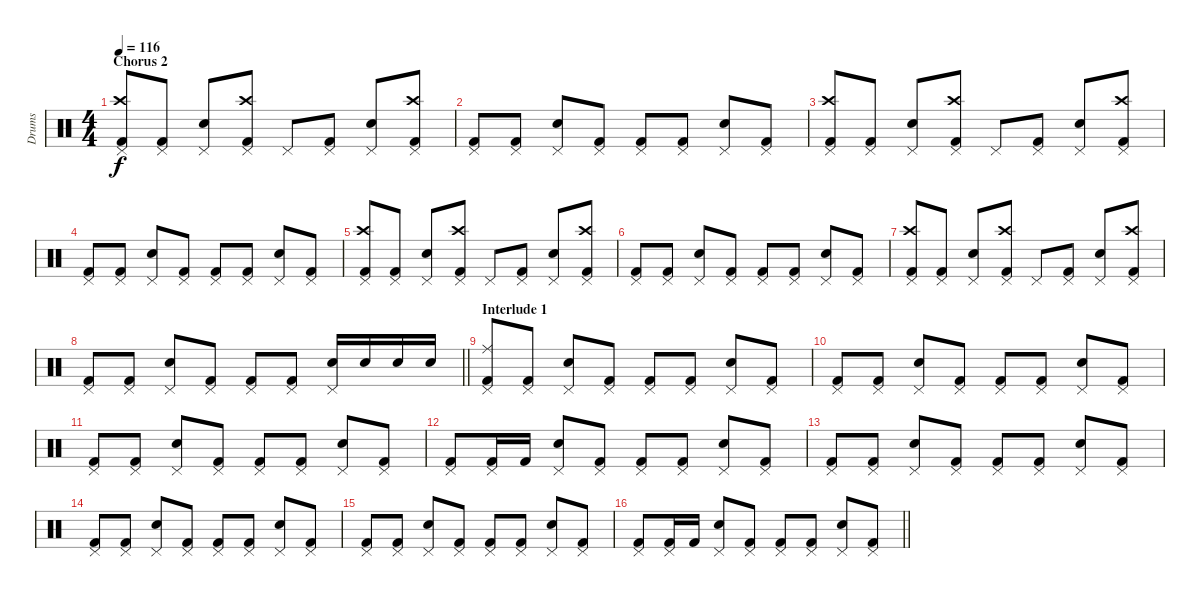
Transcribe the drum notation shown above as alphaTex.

\track ("Drums" "Drums") {instrument percussion}
\staff {score}
\articulation defaults
\ts (4 4)
\section ("" "Chorus 2")
\tempo 116
\clef neutral
\ks c
("Pedal Hi-Hat (hit)" "Crash high (hit)" "Kick (hit) 2").8{dy f} ("Pedal Hi-Hat (hit)" "Kick (hit) 2").8 ("Pedal Hi-Hat (hit)" "Electric Snare (hit)").8 ("Pedal Hi-Hat (hit)" "Crash high (hit)" "Kick (hit) 2").8 "Pedal Hi-Hat (hit)".8 ("Pedal Hi-Hat (hit)" "Kick (hit) 2").8 ("Pedal Hi-Hat (hit)" "Electric Snare (hit)").8 ("Pedal Hi-Hat (hit)" "Crash high (hit)" "Kick (hit) 2").8 |
("Pedal Hi-Hat (hit)" "Kick (hit) 2").8 ("Pedal Hi-Hat (hit)" "Kick (hit) 2").8 ("Pedal Hi-Hat (hit)" "Electric Snare (hit)").8 ("Pedal Hi-Hat (hit)" "Kick (hit) 2").8 ("Pedal Hi-Hat (hit)" "Kick (hit) 2").8 ("Pedal Hi-Hat (hit)" "Kick (hit) 2").8 ("Pedal Hi-Hat (hit)" "Electric Snare (hit)").8 ("Pedal Hi-Hat (hit)" "Kick (hit) 2").8 |
("Pedal Hi-Hat (hit)" "Crash high (hit)" "Kick (hit) 2").8 ("Pedal Hi-Hat (hit)" "Kick (hit) 2").8 ("Pedal Hi-Hat (hit)" "Electric Snare (hit)").8 ("Pedal Hi-Hat (hit)" "Crash high (hit)" "Kick (hit) 2").8 "Pedal Hi-Hat (hit)".8 ("Pedal Hi-Hat (hit)" "Kick (hit) 2").8 ("Pedal Hi-Hat (hit)" "Electric Snare (hit)").8 ("Pedal Hi-Hat (hit)" "Crash high (hit)" "Kick (hit) 2").8 |
("Pedal Hi-Hat (hit)" "Kick (hit) 2").8 ("Pedal Hi-Hat (hit)" "Kick (hit) 2").8 ("Pedal Hi-Hat (hit)" "Electric Snare (hit)").8 ("Pedal Hi-Hat (hit)" "Kick (hit) 2").8 ("Pedal Hi-Hat (hit)" "Kick (hit) 2").8 ("Pedal Hi-Hat (hit)" "Kick (hit) 2").8 ("Pedal Hi-Hat (hit)" "Electric Snare (hit)").8 ("Pedal Hi-Hat (hit)" "Kick (hit) 2").8 |
("Pedal Hi-Hat (hit)" "Crash high (hit)" "Kick (hit) 2").8 ("Pedal Hi-Hat (hit)" "Kick (hit) 2").8 ("Pedal Hi-Hat (hit)" "Electric Snare (hit)").8 ("Pedal Hi-Hat (hit)" "Crash high (hit)" "Kick (hit) 2").8 "Pedal Hi-Hat (hit)".8 ("Pedal Hi-Hat (hit)" "Kick (hit) 2").8 ("Pedal Hi-Hat (hit)" "Electric Snare (hit)").8 ("Pedal Hi-Hat (hit)" "Crash high (hit)" "Kick (hit) 2").8 |
("Pedal Hi-Hat (hit)" "Kick (hit) 2").8 ("Pedal Hi-Hat (hit)" "Kick (hit) 2").8 ("Pedal Hi-Hat (hit)" "Electric Snare (hit)").8 ("Pedal Hi-Hat (hit)" "Kick (hit) 2").8 ("Pedal Hi-Hat (hit)" "Kick (hit) 2").8 ("Pedal Hi-Hat (hit)" "Kick (hit) 2").8 ("Pedal Hi-Hat (hit)" "Electric Snare (hit)").8 ("Pedal Hi-Hat (hit)" "Kick (hit) 2").8 |
("Pedal Hi-Hat (hit)" "Crash high (hit)" "Kick (hit) 2").8 ("Pedal Hi-Hat (hit)" "Kick (hit) 2").8 ("Pedal Hi-Hat (hit)" "Electric Snare (hit)").8 ("Pedal Hi-Hat (hit)" "Crash high (hit)" "Kick (hit) 2").8 "Pedal Hi-Hat (hit)".8 ("Pedal Hi-Hat (hit)" "Kick (hit) 2").8 ("Pedal Hi-Hat (hit)" "Electric Snare (hit)").8 ("Pedal Hi-Hat (hit)" "Crash high (hit)" "Kick (hit) 2").8 |
\barLineRight lightlight
("Pedal Hi-Hat (hit)" "Kick (hit) 2").8 ("Pedal Hi-Hat (hit)" "Kick (hit) 2").8 ("Pedal Hi-Hat (hit)" "Electric Snare (hit)").8 ("Pedal Hi-Hat (hit)" "Kick (hit) 2").8 ("Pedal Hi-Hat (hit)" "Kick (hit) 2").8 ("Pedal Hi-Hat (hit)" "Kick (hit) 2").8 ("Pedal Hi-Hat (hit)" "Electric Snare (hit)").16 "Electric Snare (hit)".16 "Electric Snare (hit)".16 "Electric Snare (hit)".16 |
\section ("" "Interlude 1")
("Pedal Hi-Hat (hit)" "Ride (middle)" "Kick (hit) 2").8 ("Pedal Hi-Hat (hit)" "Kick (hit) 2").8 ("Pedal Hi-Hat (hit)" "Electric Snare (hit)").8 ("Pedal Hi-Hat (hit)" "Kick (hit) 2").8 ("Pedal Hi-Hat (hit)" "Kick (hit) 2").8 ("Pedal Hi-Hat (hit)" "Kick (hit) 2").8 ("Pedal Hi-Hat (hit)" "Electric Snare (hit)").8 ("Pedal Hi-Hat (hit)" "Kick (hit) 2").8 |
("Pedal Hi-Hat (hit)" "Kick (hit) 2").8 ("Pedal Hi-Hat (hit)" "Kick (hit) 2").8 ("Pedal Hi-Hat (hit)" "Electric Snare (hit)").8 ("Pedal Hi-Hat (hit)" "Kick (hit) 2").8 ("Pedal Hi-Hat (hit)" "Kick (hit) 2").8 ("Pedal Hi-Hat (hit)" "Kick (hit) 2").8 ("Pedal Hi-Hat (hit)" "Electric Snare (hit)").8 ("Pedal Hi-Hat (hit)" "Kick (hit) 2").8 |
("Pedal Hi-Hat (hit)" "Kick (hit) 2").8 ("Pedal Hi-Hat (hit)" "Kick (hit) 2").8 ("Pedal Hi-Hat (hit)" "Electric Snare (hit)").8 ("Pedal Hi-Hat (hit)" "Kick (hit) 2").8 ("Pedal Hi-Hat (hit)" "Kick (hit) 2").8 ("Pedal Hi-Hat (hit)" "Kick (hit) 2").8 ("Pedal Hi-Hat (hit)" "Electric Snare (hit)").8 ("Pedal Hi-Hat (hit)" "Kick (hit) 2").8 |
("Pedal Hi-Hat (hit)" "Kick (hit) 2").8 ("Pedal Hi-Hat (hit)" "Kick (hit) 2").16 "Kick (hit) 2".16 ("Pedal Hi-Hat (hit)" "Electric Snare (hit)").8 ("Pedal Hi-Hat (hit)" "Kick (hit) 2").8 ("Pedal Hi-Hat (hit)" "Kick (hit) 2").8 ("Pedal Hi-Hat (hit)" "Kick (hit) 2").8 ("Pedal Hi-Hat (hit)" "Electric Snare (hit)").8 ("Pedal Hi-Hat (hit)" "Kick (hit) 2").8 |
("Pedal Hi-Hat (hit)" "Kick (hit) 2").8 ("Pedal Hi-Hat (hit)" "Kick (hit) 2").8 ("Pedal Hi-Hat (hit)" "Electric Snare (hit)").8 ("Pedal Hi-Hat (hit)" "Kick (hit) 2").8 ("Pedal Hi-Hat (hit)" "Kick (hit) 2").8 ("Pedal Hi-Hat (hit)" "Kick (hit) 2").8 ("Pedal Hi-Hat (hit)" "Electric Snare (hit)").8 ("Pedal Hi-Hat (hit)" "Kick (hit) 2").8 |
("Pedal Hi-Hat (hit)" "Kick (hit) 2").8 ("Pedal Hi-Hat (hit)" "Kick (hit) 2").8 ("Pedal Hi-Hat (hit)" "Electric Snare (hit)").8 ("Pedal Hi-Hat (hit)" "Kick (hit) 2").8 ("Pedal Hi-Hat (hit)" "Kick (hit) 2").8 ("Pedal Hi-Hat (hit)" "Kick (hit) 2").8 ("Pedal Hi-Hat (hit)" "Electric Snare (hit)").8 ("Pedal Hi-Hat (hit)" "Kick (hit) 2").8 |
("Pedal Hi-Hat (hit)" "Kick (hit) 2").8 ("Pedal Hi-Hat (hit)" "Kick (hit) 2").8 ("Pedal Hi-Hat (hit)" "Electric Snare (hit)").8 ("Pedal Hi-Hat (hit)" "Kick (hit) 2").8 ("Pedal Hi-Hat (hit)" "Kick (hit) 2").8 ("Pedal Hi-Hat (hit)" "Kick (hit) 2").8 ("Pedal Hi-Hat (hit)" "Electric Snare (hit)").8 ("Pedal Hi-Hat (hit)" "Kick (hit) 2").8 |
\barLineRight lightlight
("Pedal Hi-Hat (hit)" "Kick (hit) 2").8 ("Pedal Hi-Hat (hit)" "Kick (hit) 2").16 "Kick (hit) 2".16 ("Pedal Hi-Hat (hit)" "Electric Snare (hit)").8 ("Pedal Hi-Hat (hit)" "Kick (hit) 2").8 ("Pedal Hi-Hat (hit)" "Kick (hit) 2").8 ("Pedal Hi-Hat (hit)" "Kick (hit) 2").8 ("Pedal Hi-Hat (hit)" "Electric Snare (hit)").8 ("Pedal Hi-Hat (hit)" "Kick (hit) 2").8
